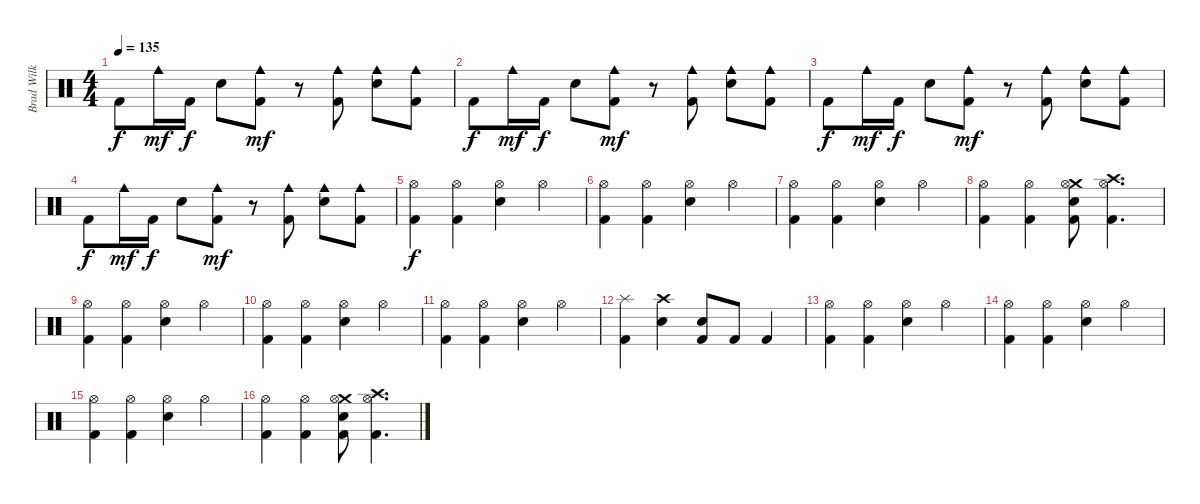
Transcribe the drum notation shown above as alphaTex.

\track ("Brad Wilk" "Brad Wilk") {instrument percussion}
\staff {score}
\articulation defaults
\ts (4 4)
\tempo 135
\clef neutral
\ks c "Kick (hit) 2".8{dy f} "Cowbell medium (hit)".16{dy mf} "Kick (hit) 2".16{dy f} "Electric Snare (hit)".8
("Cowbell medium (hit)" "Kick (hit) 2").8{dy mf} r.8 ("Cowbell medium (hit)" "Kick (hit) 2").8 ("Cowbell medium (hit)" "Electric Snare (hit)").8 ("Cowbell medium (hit)" "Kick (hit) 2").8 |
"Kick (hit) 2".8{dy f} "Cowbell medium (hit)".16{dy mf} "Kick (hit) 2".16{dy f} "Electric Snare (hit)".8 ("Cowbell medium (hit)" "Kick (hit) 2").8{dy mf} r.8 ("Cowbell medium (hit)" "Kick (hit) 2").8 ("Cowbell medium (hit)" "Electric Snare (hit)").8 ("Cowbell medium (hit)" "Kick (hit) 2").8 |
"Kick (hit) 2".8{dy f} "Cowbell medium (hit)".16{dy mf} "Kick (hit) 2".16{dy f} "Electric Snare (hit)".8 ("Cowbell medium (hit)" "Kick (hit) 2").8{dy mf} r.8 ("Cowbell medium (hit)" "Kick (hit) 2").8 ("Cowbell medium (hit)" "Electric Snare (hit)").8 ("Cowbell medium (hit)" "Kick (hit) 2").8 |
"Kick (hit) 2".8{dy f} "Cowbell medium (hit)".16{dy mf} "Kick (hit) 2".16{dy f} "Electric Snare (hit)".8 ("Cowbell medium (hit)" "Kick (hit) 2").8{dy mf} r.8 ("Cowbell medium (hit)" "Kick (hit) 2").8 ("Cowbell medium (hit)" "Electric Snare (hit)").8 ("Cowbell medium (hit)" "Kick (hit) 2").8 |
("Hi-Hat (open)" "Kick (hit) 2").4{dy f} ("Hi-Hat (open)" "Kick (hit) 2").4 ("Hi-Hat (open)" "Electric Snare (hit)").4 "Hi-Hat (open)".4 |
("Hi-Hat (open)" "Kick (hit) 2").4 ("Hi-Hat (open)" "Kick (hit) 2").4 ("Hi-Hat (open)" "Electric Snare (hit)").4 "Hi-Hat (open)".4 |
("Hi-Hat (open)" "Kick (hit) 2").4 ("Hi-Hat (open)" "Kick (hit) 2").4 ("Hi-Hat (open)" "Electric Snare (hit)").4 "Hi-Hat (open)".4 |
("Hi-Hat (open)" "Kick (hit) 2").4 ("Hi-Hat (open)" "Kick (hit) 2").4 ("Crash medium (hit)" "Hi-Hat (open)" "Electric Snare (hit)" "Kick (hit) 2").8 ("Crash high (hit)" "Hi-Hat (open)" "Kick (hit) 2").4{d} |
("Hi-Hat (open)" "Kick (hit) 2").4 ("Hi-Hat (open)" "Kick (hit) 2").4 ("Hi-Hat (open)" "Electric Snare (hit)").4 "Hi-Hat (open)".4 |
("Hi-Hat (open)" "Kick (hit) 2").4 ("Hi-Hat (open)" "Kick (hit) 2").4 ("Hi-Hat (open)" "Electric Snare (hit)").4 "Hi-Hat (open)".4 |
("Hi-Hat (open)" "Kick (hit) 2").4 ("Hi-Hat (open)" "Kick (hit) 2").4 ("Hi-Hat (open)" "Electric Snare (hit)").4 "Hi-Hat (open)".4 |
("Splash (hit)" "Kick (hit) 2").4 ("Crash high (hit)" "Electric Snare (hit)").4 ("Electric Snare (hit)" "Kick (hit) 2").8 "Kick (hit) 2".8 "Kick (hit) 2".4 |
("Hi-Hat (open)" "Kick (hit) 2").4 ("Hi-Hat (open)" "Kick (hit) 2").4 ("Hi-Hat (open)" "Electric Snare (hit)").4 "Hi-Hat (open)".4 |
("Hi-Hat (open)" "Kick (hit) 2").4 ("Hi-Hat (open)" "Kick (hit) 2").4 ("Hi-Hat (open)" "Electric Snare (hit)").4 "Hi-Hat (open)".4 |
("Hi-Hat (open)" "Kick (hit) 2").4 ("Hi-Hat (open)" "Kick (hit) 2").4 ("Hi-Hat (open)" "Electric Snare (hit)").4 "Hi-Hat (open)".4 |
("Hi-Hat (open)" "Kick (hit) 2").4 ("Hi-Hat (open)" "Kick (hit) 2").4 ("Crash medium (hit)" "Hi-Hat (open)" "Electric Snare (hit)" "Kick (hit) 2").8 ("Crash high (hit)" "Hi-Hat (open)" "Kick (hit) 2").4{d}
